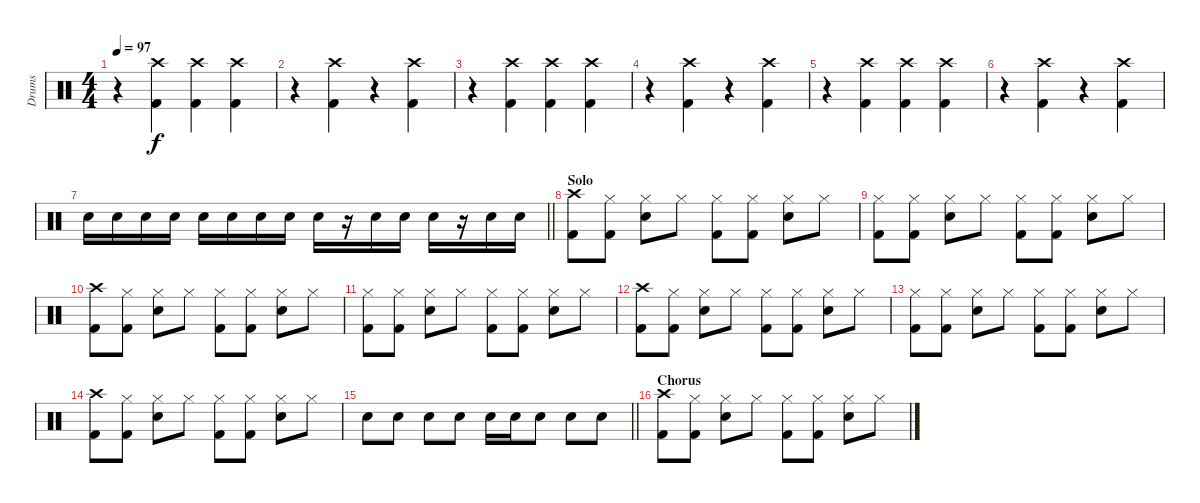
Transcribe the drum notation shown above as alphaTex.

\track ("Drums" "Drums") {instrument percussion}
\staff {score}
\articulation defaults
\ts (4 4)
\tempo 97
\clef neutral
\ks c
r.4{dy f} ("Crash high (hit)" "Kick (hit) 2").4 ("Crash high (hit)" "Kick (hit) 2").4 ("Crash high (hit)" "Kick (hit) 2").4 |
r.4 ("Crash high (hit)" "Kick (hit) 2").4 r.4 ("Crash high (hit)" "Kick (hit) 2").4 |
r.4 ("Crash high (hit)" "Kick (hit) 2").4 ("Crash high (hit)" "Kick (hit) 2").4 ("Crash high (hit)" "Kick (hit) 2").4 |
r.4 ("Crash high (hit)" "Kick (hit) 2").4 r.4 ("Crash high (hit)" "Kick (hit) 2").4 |
r.4 ("Crash high (hit)" "Kick (hit) 2").4 ("Crash high (hit)" "Kick (hit) 2").4 ("Crash high (hit)" "Kick (hit) 2").4 |
r.4 ("Crash high (hit)" "Kick (hit) 2").4 r.4 ("Crash high (hit)" "Kick (hit) 2").4 |
\barLineRight lightlight "Electric Snare (hit)".16 "Electric Snare (hit)".16 "Electric Snare (hit)".16 "Electric Snare (hit)".16 "Electric Snare (hit)".16 "Electric Snare (hit)".16 "Electric Snare (hit)".16 "Electric Snare (hit)".16 "Electric Snare (hit)".16
r.16 "Electric Snare (hit)".16 "Electric Snare (hit)".16 "Electric Snare (hit)".16 r.16 "Electric Snare (hit)".16 "Electric Snare (hit)".16 |
\section ("" "Solo")
("Crash high (hit)" "Kick (hit) 2").8 ("Hi-Hat (closed)" "Kick (hit) 2").8 ("Hi-Hat (closed)" "Electric Snare (hit)").8 "Hi-Hat (closed)".8 ("Hi-Hat (closed)" "Kick (hit) 2").8 ("Hi-Hat (closed)" "Kick (hit) 2").8 ("Hi-Hat (closed)" "Electric Snare (hit)").8 "Hi-Hat (closed)".8 |
("Hi-Hat (closed)" "Kick (hit) 2").8 ("Hi-Hat (closed)" "Kick (hit) 2").8 ("Hi-Hat (closed)" "Electric Snare (hit)").8 "Hi-Hat (closed)".8 ("Hi-Hat (closed)" "Kick (hit) 2").8 ("Hi-Hat (closed)" "Kick (hit) 2").8 ("Hi-Hat (closed)" "Electric Snare (hit)").8 "Hi-Hat (closed)".8 |
("Crash high (hit)" "Kick (hit) 2").8 ("Hi-Hat (closed)" "Kick (hit) 2").8 ("Hi-Hat (closed)" "Electric Snare (hit)").8 "Hi-Hat (closed)".8 ("Hi-Hat (closed)" "Kick (hit) 2").8 ("Hi-Hat (closed)" "Kick (hit) 2").8 ("Hi-Hat (closed)" "Electric Snare (hit)").8 "Hi-Hat (closed)".8 |
("Hi-Hat (closed)" "Kick (hit) 2").8 ("Hi-Hat (closed)" "Kick (hit) 2").8 ("Hi-Hat (closed)" "Electric Snare (hit)").8 "Hi-Hat (closed)".8 ("Hi-Hat (closed)" "Kick (hit) 2").8 ("Hi-Hat (closed)" "Kick (hit) 2").8 ("Hi-Hat (closed)" "Electric Snare (hit)").8 "Hi-Hat (closed)".8 |
("Crash high (hit)" "Kick (hit) 2").8 ("Hi-Hat (closed)" "Kick (hit) 2").8 ("Hi-Hat (closed)" "Electric Snare (hit)").8 "Hi-Hat (closed)".8 ("Hi-Hat (closed)" "Kick (hit) 2").8 ("Hi-Hat (closed)" "Kick (hit) 2").8 ("Hi-Hat (closed)" "Electric Snare (hit)").8 "Hi-Hat (closed)".8 |
("Hi-Hat (closed)" "Kick (hit) 2").8 ("Hi-Hat (closed)" "Kick (hit) 2").8 ("Hi-Hat (closed)" "Electric Snare (hit)").8 "Hi-Hat (closed)".8 ("Hi-Hat (closed)" "Kick (hit) 2").8 ("Hi-Hat (closed)" "Kick (hit) 2").8 ("Hi-Hat (closed)" "Electric Snare (hit)").8 "Hi-Hat (closed)".8 |
("Crash high (hit)" "Kick (hit) 2").8 ("Hi-Hat (closed)" "Kick (hit) 2").8 ("Hi-Hat (closed)" "Electric Snare (hit)").8 "Hi-Hat (closed)".8 ("Hi-Hat (closed)" "Kick (hit) 2").8 ("Hi-Hat (closed)" "Kick (hit) 2").8 ("Hi-Hat (closed)" "Electric Snare (hit)").8 "Hi-Hat (closed)".8 |
\barLineRight lightlight "Electric Snare (hit)".8 "Electric Snare (hit)".8 "Electric Snare (hit)".8 "Electric Snare (hit)".8 "Electric Snare (hit)".16 "Electric Snare (hit)".16 "Electric Snare (hit)".8 "Electric Snare (hit)".8 "Electric Snare (hit)".8
|
\section ("" "Chorus")
("Crash high (hit)" "Kick (hit) 2").8 ("Hi-Hat (closed)" "Kick (hit) 2").8 ("Hi-Hat (closed)" "Electric Snare (hit)").8 "Hi-Hat (closed)".8 ("Hi-Hat (closed)" "Kick (hit) 2").8 ("Hi-Hat (closed)" "Kick (hit) 2").8 ("Hi-Hat (closed)" "Electric Snare (hit)").8 "Hi-Hat (closed)".8
